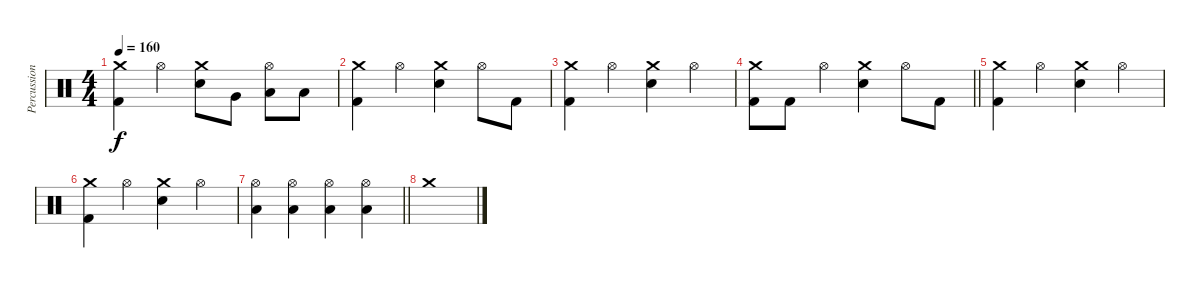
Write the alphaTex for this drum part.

\track ("Percussioni" "Percussion") {instrument percussion}
\staff {score}
\articulation defaults
\ts (4 4)
\tempo 160
\clef neutral
\ks c
("Crash medium (hit)" "Kick (hit) 2").4{dy f} "Hi-Hat (open)".4 ("Crash medium (hit)" "Electric Snare (hit)").8 "Very Low Tom (hit)".8 ("Hi-Hat (open)" "Low Floor Tom (hit)").8 "Low Floor Tom (hit)".8 |
("Crash medium (hit)" "Kick (hit) 2").4 "Hi-Hat (open)".4 ("Crash medium (hit)" "Electric Snare (hit)").4 "Hi-Hat (open)".8 "Kick (hit) 2".8 |
("Crash medium (hit)" "Kick (hit) 2").4 "Hi-Hat (open)".4 ("Crash medium (hit)" "Electric Snare (hit)").4 "Hi-Hat (open)".4 |
\barLineRight lightlight
("Crash medium (hit)" "Kick (hit) 2").8 "Kick (hit) 2".8 "Hi-Hat (open)".4 ("Crash medium (hit)" "Electric Snare (hit)").4 "Hi-Hat (open)".8 "Kick (hit) 2".8 |
("Crash medium (hit)" "Kick (hit) 2").4 "Hi-Hat (open)".4 ("Crash medium (hit)" "Electric Snare (hit)").4 "Hi-Hat (open)".4 |
("Crash medium (hit)" "Kick (hit) 2").4 "Hi-Hat (open)".4 ("Crash medium (hit)" "Electric Snare (hit)").4 "Hi-Hat (open)".4 |
\barLineRight lightlight
("Hi-Hat (open)" "Low Floor Tom (hit)").4 ("Hi-Hat (open)" "Low Floor Tom (hit)").4 ("Hi-Hat (open)" "Low Floor Tom (hit)").4 ("Hi-Hat (open)" "Low Floor Tom (hit)").4 |
"Crash medium (hit)".1
